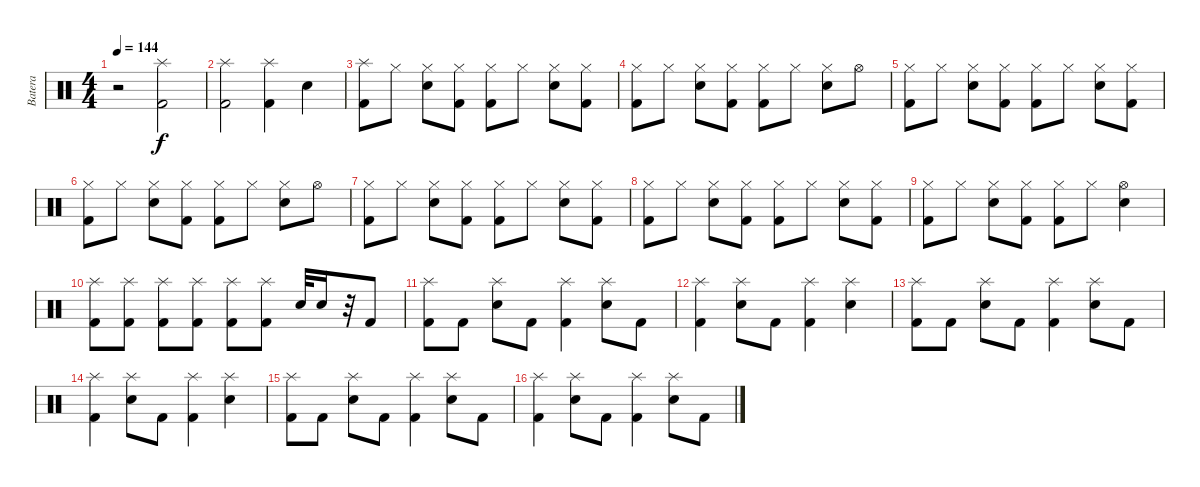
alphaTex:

\track ("Batera" "Batera") {instrument percussion}
\staff {score}
\articulation defaults
\ts (4 4)
\tempo 144
\clef neutral
\ks c
r.2{dy f} ("Splash (hit)" "Kick (hit) 2").2 |
("Splash (hit)" "Kick (hit) 2").2 ("Splash (hit)" "Kick (hit) 2").4 "Snare (hit) 2".4 |
("Splash (hit)" "Kick (hit) 2").8 "Hi-Hat (closed)".8 ("Hi-Hat (closed)" "Snare (hit) 2").8 ("Hi-Hat (closed)" "Kick (hit) 2").8 ("Hi-Hat (closed)" "Kick (hit) 2").8 "Hi-Hat (closed)".8 ("Hi-Hat (closed)" "Snare (hit) 2").8 ("Hi-Hat (closed)" "Kick (hit) 2").8 |
("Hi-Hat (closed)" "Kick (hit) 2").8 "Hi-Hat (closed)".8 ("Hi-Hat (closed)" "Snare (hit) 2").8 ("Hi-Hat (closed)" "Kick (hit) 2").8 ("Hi-Hat (closed)" "Kick (hit) 2").8 "Hi-Hat (closed)".8 ("Hi-Hat (closed)" "Snare (hit) 2").8 "Hi-Hat (open)".8 |
("Hi-Hat (closed)" "Kick (hit) 2").8 "Hi-Hat (closed)".8 ("Hi-Hat (closed)" "Snare (hit) 2").8 ("Hi-Hat (closed)" "Kick (hit) 2").8 ("Hi-Hat (closed)" "Kick (hit) 2").8 "Hi-Hat (closed)".8 ("Hi-Hat (closed)" "Snare (hit) 2").8 ("Hi-Hat (closed)" "Kick (hit) 2").8 |
("Hi-Hat (closed)" "Kick (hit) 2").8 "Hi-Hat (closed)".8 ("Hi-Hat (closed)" "Snare (hit) 2").8 ("Hi-Hat (closed)" "Kick (hit) 2").8 ("Hi-Hat (closed)" "Kick (hit) 2").8 "Hi-Hat (closed)".8 ("Hi-Hat (closed)" "Snare (hit) 2").8 "Hi-Hat (open)".8 |
("Hi-Hat (closed)" "Kick (hit) 2").8 "Hi-Hat (closed)".8 ("Hi-Hat (closed)" "Snare (hit) 2").8 ("Hi-Hat (closed)" "Kick (hit) 2").8 ("Hi-Hat (closed)" "Kick (hit) 2").8 "Hi-Hat (closed)".8 ("Hi-Hat (closed)" "Snare (hit) 2").8 ("Hi-Hat (closed)" "Kick (hit) 2").8 |
("Hi-Hat (closed)" "Kick (hit) 2").8 "Hi-Hat (closed)".8 ("Hi-Hat (closed)" "Snare (hit) 2").8 ("Hi-Hat (closed)" "Kick (hit) 2").8 ("Hi-Hat (closed)" "Kick (hit) 2").8 "Hi-Hat (closed)".8 ("Hi-Hat (closed)" "Snare (hit) 2").8 ("Hi-Hat (closed)" "Kick (hit) 2").8 |
("Hi-Hat (closed)" "Kick (hit) 2").8 "Hi-Hat (closed)".8 ("Hi-Hat (closed)" "Snare (hit) 2").8 ("Hi-Hat (closed)" "Kick (hit) 2").8 ("Hi-Hat (closed)" "Kick (hit) 2").8 "Hi-Hat (closed)".8 ("Hi-Hat (open)" "Snare (hit) 2").4 |
("Splash (hit)" "Kick (hit) 2").8 ("Splash (hit)" "Kick (hit) 2").8 ("Splash (hit)" "Kick (hit) 2").8 ("Splash (hit)" "Kick (hit) 2").8 ("Splash (hit)" "Kick (hit) 2").8 ("Splash (hit)" "Kick (hit) 2").8 "Snare (hit) 2".32 "Snare (hit) 2".16 r.32 "Kick (hit) 2".8 |
("Splash (hit)" "Kick (hit) 2").8 "Kick (hit) 2".8 ("Splash (hit)" "Snare (hit) 2").8 "Kick (hit) 2".8 ("Splash (hit)" "Kick (hit) 2").4 ("Splash (hit)" "Snare (hit) 2").8 "Kick (hit) 2".8 |
("Splash (hit)" "Kick (hit) 2").4 ("Splash (hit)" "Snare (hit) 2").8 "Kick (hit) 2".8 ("Splash (hit)" "Kick (hit) 2").4 ("Splash (hit)" "Snare (hit) 2").4 |
("Splash (hit)" "Kick (hit) 2").8 "Kick (hit) 2".8 ("Splash (hit)" "Snare (hit) 2").8 "Kick (hit) 2".8 ("Splash (hit)" "Kick (hit) 2").4 ("Splash (hit)" "Snare (hit) 2").8 "Kick (hit) 2".8 |
("Splash (hit)" "Kick (hit) 2").4 ("Splash (hit)" "Snare (hit) 2").8 "Kick (hit) 2".8 ("Splash (hit)" "Kick (hit) 2").4 ("Splash (hit)" "Snare (hit) 2").4 |
("Splash (hit)" "Kick (hit) 2").8 "Kick (hit) 2".8 ("Splash (hit)" "Snare (hit) 2").8 "Kick (hit) 2".8 ("Splash (hit)" "Kick (hit) 2").4 ("Splash (hit)" "Snare (hit) 2").8 "Kick (hit) 2".8 |
("Splash (hit)" "Kick (hit) 2").4 ("Splash (hit)" "Snare (hit) 2").8 "Kick (hit) 2".8 ("Splash (hit)" "Kick (hit) 2").4 ("Splash (hit)" "Snare (hit) 2").8 "Kick (hit) 2".8
